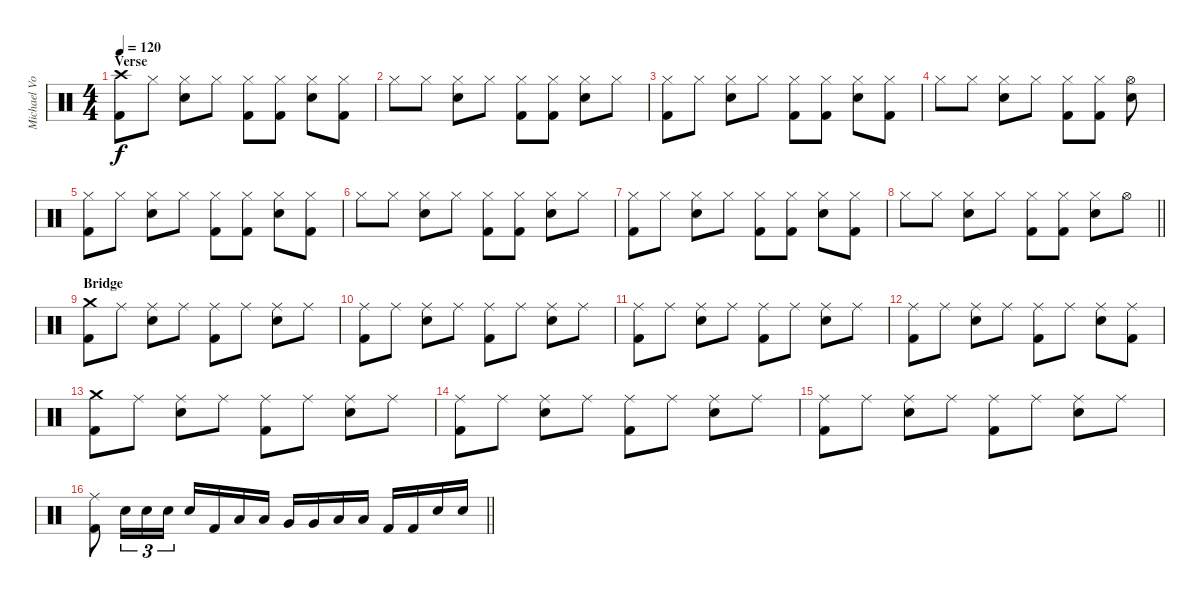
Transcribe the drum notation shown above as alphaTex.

\track ("Michael Von Knorring" "Michael Vo") {instrument percussion}
\staff {score}
\articulation defaults
\ts (4 4)
\section ("" "Verse")
\tempo 120
\clef neutral
\ks c
("Crash high (hit)" "Kick (hit) 2").8{dy f} "Hi-Hat (closed)".8 ("Hi-Hat (closed)" "Snare (hit) 2").8 "Hi-Hat (closed)".8 ("Hi-Hat (closed)" "Kick (hit) 2").8 ("Hi-Hat (closed)" "Kick (hit) 2").8 ("Hi-Hat (closed)" "Snare (hit) 2").8 ("Hi-Hat (closed)" "Kick (hit) 2").8 |
"Hi-Hat (closed)".8 "Hi-Hat (closed)".8 ("Hi-Hat (closed)" "Snare (hit) 2").8 "Hi-Hat (closed)".8 ("Hi-Hat (closed)" "Kick (hit) 2").8 ("Hi-Hat (closed)" "Kick (hit) 2").8 ("Hi-Hat (closed)" "Snare (hit) 2").8 "Hi-Hat (closed)".8 |
("Hi-Hat (closed)" "Kick (hit) 2").8 "Hi-Hat (closed)".8 ("Hi-Hat (closed)" "Snare (hit) 2").8 "Hi-Hat (closed)".8 ("Hi-Hat (closed)" "Kick (hit) 2").8 ("Hi-Hat (closed)" "Kick (hit) 2").8 ("Hi-Hat (closed)" "Snare (hit) 2").8 ("Hi-Hat (closed)" "Kick (hit) 2").8 |
"Hi-Hat (closed)".8 "Hi-Hat (closed)".8 ("Hi-Hat (closed)" "Snare (hit) 2").8 "Hi-Hat (closed)".8 ("Hi-Hat (closed)" "Kick (hit) 2").8 ("Hi-Hat (closed)" "Kick (hit) 2").8 ("Hi-Hat (open)" "Snare (hit) 2").8 |
("Hi-Hat (closed)" "Kick (hit) 2").8 "Hi-Hat (closed)".8 ("Hi-Hat (closed)" "Snare (hit) 2").8 "Hi-Hat (closed)".8 ("Hi-Hat (closed)" "Kick (hit) 2").8 ("Hi-Hat (closed)" "Kick (hit) 2").8 ("Hi-Hat (closed)" "Snare (hit) 2").8 ("Hi-Hat (closed)" "Kick (hit) 2").8 |
"Hi-Hat (closed)".8 "Hi-Hat (closed)".8 ("Hi-Hat (closed)" "Snare (hit) 2").8 "Hi-Hat (closed)".8 ("Hi-Hat (closed)" "Kick (hit) 2").8 ("Hi-Hat (closed)" "Kick (hit) 2").8 ("Hi-Hat (closed)" "Snare (hit) 2").8 "Hi-Hat (closed)".8 |
("Hi-Hat (closed)" "Kick (hit) 2").8 "Hi-Hat (closed)".8 ("Hi-Hat (closed)" "Snare (hit) 2").8 "Hi-Hat (closed)".8 ("Hi-Hat (closed)" "Kick (hit) 2").8 ("Hi-Hat (closed)" "Kick (hit) 2").8 ("Hi-Hat (closed)" "Snare (hit) 2").8 ("Hi-Hat (closed)" "Kick (hit) 2").8 |
\barLineRight lightlight "Hi-Hat (closed)".8 "Hi-Hat (closed)".8
("Hi-Hat (closed)" "Snare (hit) 2").8 "Hi-Hat (closed)".8 ("Hi-Hat (closed)" "Kick (hit) 2").8 ("Hi-Hat (closed)" "Kick (hit) 2").8 ("Hi-Hat (closed)" "Snare (hit) 2").8 "Hi-Hat (open)".8 |
\section ("" "Bridge")
("Crash medium (hit)" "Kick (hit) 2").8 "Ride (middle)".8 ("Ride (middle)" "Snare (hit) 2").8 "Ride (middle)".8 ("Ride (middle)" "Kick (hit) 2").8 "Ride (middle)".8 ("Ride (middle)" "Snare (hit) 2").8 "Ride (middle)".8 |
("Ride (middle)" "Kick (hit) 2").8 "Ride (middle)".8 ("Ride (middle)" "Snare (hit) 2").8 "Ride (middle)".8 ("Ride (middle)" "Kick (hit) 2").8 "Ride (middle)".8 ("Ride (middle)" "Snare (hit) 2").8 "Ride (middle)".8 |
("Ride (middle)" "Kick (hit) 2").8 "Ride (middle)".8 ("Ride (middle)" "Snare (hit) 2").8 "Ride (middle)".8 ("Ride (middle)" "Kick (hit) 2").8 "Ride (middle)".8 ("Ride (middle)" "Snare (hit) 2").8 "Ride (middle)".8 |
("Ride (middle)" "Kick (hit) 2").8 "Ride (middle)".8 ("Ride (middle)" "Snare (hit) 2").8 "Ride (middle)".8 ("Ride (middle)" "Kick (hit) 2").8 "Ride (middle)".8 ("Ride (middle)" "Snare (hit) 2").8 ("Ride (middle)" "Kick (hit) 2").8 |
("Crash medium (hit)" "Kick (hit) 2").8 "Ride (middle)".8 ("Ride (middle)" "Snare (hit) 2").8 "Ride (middle)".8 ("Ride (middle)" "Kick (hit) 2").8 "Ride (middle)".8 ("Ride (middle)" "Snare (hit) 2").8 "Ride (middle)".8 |
("Ride (middle)" "Kick (hit) 2").8 "Ride (middle)".8 ("Ride (middle)" "Snare (hit) 2").8 "Ride (middle)".8 ("Ride (middle)" "Kick (hit) 2").8 "Ride (middle)".8 ("Ride (middle)" "Snare (hit) 2").8 "Ride (middle)".8 |
("Ride (middle)" "Kick (hit) 2").8 "Ride (middle)".8 ("Ride (middle)" "Snare (hit) 2").8 "Ride (middle)".8 ("Ride (middle)" "Kick (hit) 2").8 "Ride (middle)".8 ("Ride (middle)" "Snare (hit) 2").8 "Ride (middle)".8 |
\barLineRight lightlight
("Ride (middle)" "Kick (hit) 2").8 "Snare (hit) 2".16{tu (3 2)} "Snare (hit) 2".16{tu (3 2)} "Snare (hit) 2".16{tu (3 2)} "Snare (hit) 2".16 "Kick (hit) 2".16 "Low Tom (hit)".16 "Low Tom (hit)".16 "Very Low Tom (hit)".16 "Very Low Tom (hit)".16 "Low Floor Tom (hit)".16 "Low Floor Tom (hit)".16 "Kick (hit) 2".16 "Kick (hit) 2".16 "Snare (hit) 2".16 "Snare (hit) 2".16
